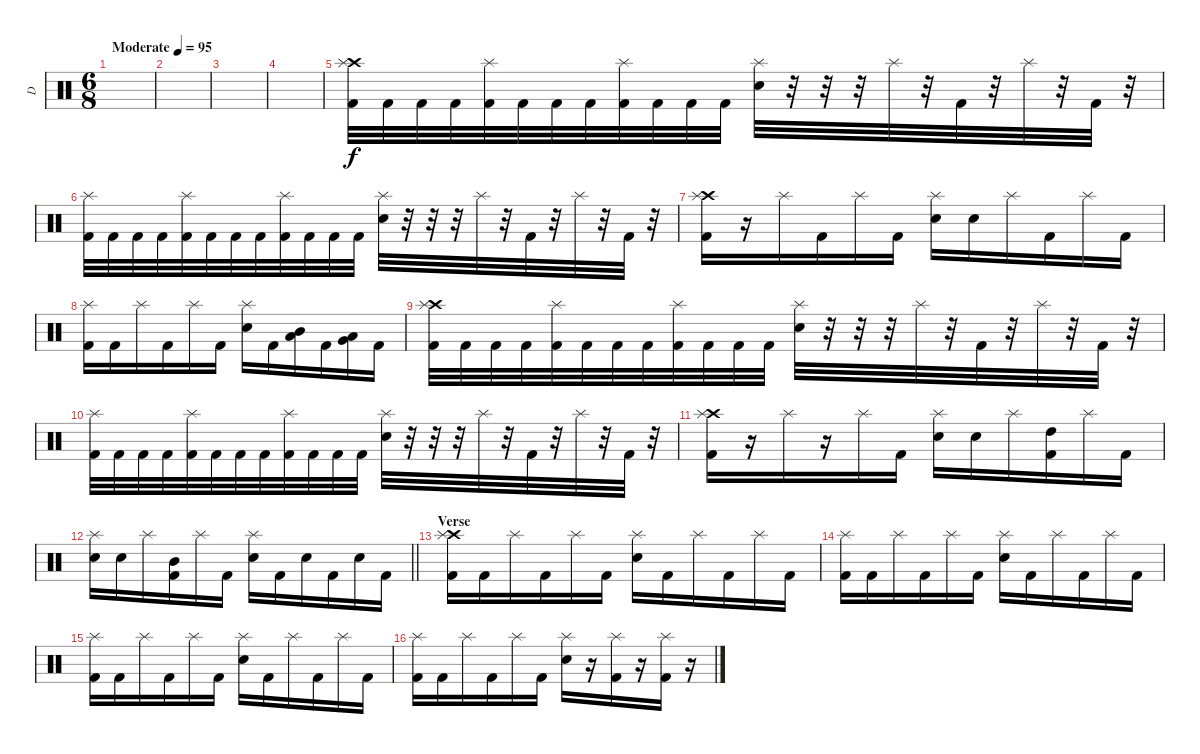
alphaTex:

\track ("D" "D") {instrument percussion}
\staff {score}
\articulation defaults
\ts (6 8)
\tempo (95 "Moderate")
\clef neutral
\ks c
|
|
|
|
("Crash high (hit)" "Kick (hit) 2" "Splash (hit)").32 "Kick (hit) 2".32 "Kick (hit) 2".32 "Kick (hit) 2".32 ("Kick (hit) 2" "Splash (hit)").32 "Kick (hit) 2".32 "Kick (hit) 2".32 "Kick (hit) 2".32 ("Kick (hit) 2" "Splash (hit)").32 "Kick (hit) 2".32 "Kick (hit) 2".32 "Kick (hit) 2".32 ("Electric Snare (hit)" "Splash (hit)").32 r.32 r.32 r.32 "Splash (hit)".32 r.32 "Kick (hit) 2".32 r.32 "Splash (hit)".32 r.32 "Kick (hit) 2".32 r.32 |
("Kick (hit) 2" "Splash (hit)").32 "Kick (hit) 2".32 "Kick (hit) 2".32 "Kick (hit) 2".32 ("Kick (hit) 2" "Splash (hit)").32 "Kick (hit) 2".32 "Kick (hit) 2".32 "Kick (hit) 2".32 ("Kick (hit) 2" "Splash (hit)").32 "Kick (hit) 2".32 "Kick (hit) 2".32 "Kick (hit) 2".32 ("Electric Snare (hit)" "Splash (hit)").32 r.32 r.32 r.32 "Splash (hit)".32 r.32 "Kick (hit) 2".32 r.32 "Splash (hit)".32 r.32 "Kick (hit) 2".32 r.32 |
("Crash high (hit)" "Kick (hit) 2" "Splash (hit)").16 r.16 "Splash (hit)".16 "Kick (hit) 2".16 "Splash (hit)".16 "Kick (hit) 2".16 ("Electric Snare (hit)" "Splash (hit)").16 "Electric Snare (hit)".16 "Splash (hit)".16 "Kick (hit) 2".16 "Splash (hit)".16 "Kick (hit) 2".16 |
("Kick (hit) 2" "Splash (hit)").16 "Kick (hit) 2".16 "Splash (hit)".16 "Kick (hit) 2".16 "Splash (hit)".16 "Kick (hit) 2".16 ("Electric Snare (hit)" "Splash (hit)").16 "Kick (hit) 2".16 ("Mid Tom (hit)" "Low Tom (hit)").16 "Kick (hit) 2".16 ("Very Low Tom (hit)" "Low Tom (hit)").16 "Kick (hit) 2".16 |
("Crash high (hit)" "Kick (hit) 2" "Splash (hit)").32 "Kick (hit) 2".32 "Kick (hit) 2".32 "Kick (hit) 2".32 ("Kick (hit) 2" "Splash (hit)").32 "Kick (hit) 2".32 "Kick (hit) 2".32 "Kick (hit) 2".32 ("Kick (hit) 2" "Splash (hit)").32 "Kick (hit) 2".32 "Kick (hit) 2".32 "Kick (hit) 2".32 ("Electric Snare (hit)" "Splash (hit)").32 r.32 r.32 r.32 "Splash (hit)".32 r.32 "Kick (hit) 2".32 r.32 "Splash (hit)".32 r.32 "Kick (hit) 2".32 r.32 |
("Kick (hit) 2" "Splash (hit)").32 "Kick (hit) 2".32 "Kick (hit) 2".32 "Kick (hit) 2".32 ("Kick (hit) 2" "Splash (hit)").32 "Kick (hit) 2".32 "Kick (hit) 2".32 "Kick (hit) 2".32 ("Kick (hit) 2" "Splash (hit)").32 "Kick (hit) 2".32 "Kick (hit) 2".32 "Kick (hit) 2".32 ("Electric Snare (hit)" "Splash (hit)").32 r.32 r.32 r.32 "Splash (hit)".32 r.32 "Kick (hit) 2".32 r.32 "Splash (hit)".32 r.32 "Kick (hit) 2".32 r.32 |
("Crash high (hit)" "Kick (hit) 2" "Splash (hit)").16 r.16 "Splash (hit)".16 r.16 "Splash (hit)".16 "Kick (hit) 2".16 ("Electric Snare (hit)" "Splash (hit)").16 "Electric Snare (hit)".16 "Splash (hit)".16 ("High Tom (hit)" "Kick (hit) 2").16 "Splash (hit)".16 "Kick (hit) 2".16 |
\barLineRight lightlight
("Electric Snare (hit)" "Splash (hit)").16 "Electric Snare (hit)".16 "Splash (hit)".16 ("Mid Tom (hit)" "Kick (hit) 2").16 "Splash (hit)".16 "Kick (hit) 2".16 ("Electric Snare (hit)" "Splash (hit)").16 "Kick (hit) 2".16 "Electric Snare (hit)".16 "Kick (hit) 2".16 "Electric Snare (hit)".16 "Kick (hit) 2".16 |
\section ("" "Verse ")
("Crash high (hit)" "Kick (hit) 2" "Splash (hit)").16 "Kick (hit) 2".16 "Splash (hit)".16 "Kick (hit) 2".16 "Splash (hit)".16 "Kick (hit) 2".16 ("Electric Snare (hit)" "Splash (hit)").16 "Kick (hit) 2".16 "Splash (hit)".16 "Kick (hit) 2".16 "Splash (hit)".16 "Kick (hit) 2".16 |
("Kick (hit) 2" "Splash (hit)").16 "Kick (hit) 2".16 "Splash (hit)".16 "Kick (hit) 2".16 "Splash (hit)".16 "Kick (hit) 2".16 ("Electric Snare (hit)" "Splash (hit)").16 "Kick (hit) 2".16 "Splash (hit)".16 "Kick (hit) 2".16 "Splash (hit)".16 "Kick (hit) 2".16 |
("Kick (hit) 2" "Splash (hit)").16 "Kick (hit) 2".16 "Splash (hit)".16 "Kick (hit) 2".16 "Splash (hit)".16 "Kick (hit) 2".16 ("Electric Snare (hit)" "Splash (hit)").16 "Kick (hit) 2".16 "Splash (hit)".16 "Kick (hit) 2".16 "Splash (hit)".16 "Kick (hit) 2".16 |
("Kick (hit) 2" "Splash (hit)").16 "Kick (hit) 2".16 "Splash (hit)".16 "Kick (hit) 2".16 "Splash (hit)".16 "Kick (hit) 2".16 ("Electric Snare (hit)" "Splash (hit)").16 r.16 ("Kick (hit) 2" "Splash (hit)").16 r.16 ("Kick (hit) 2" "Splash (hit)").16 r.16
